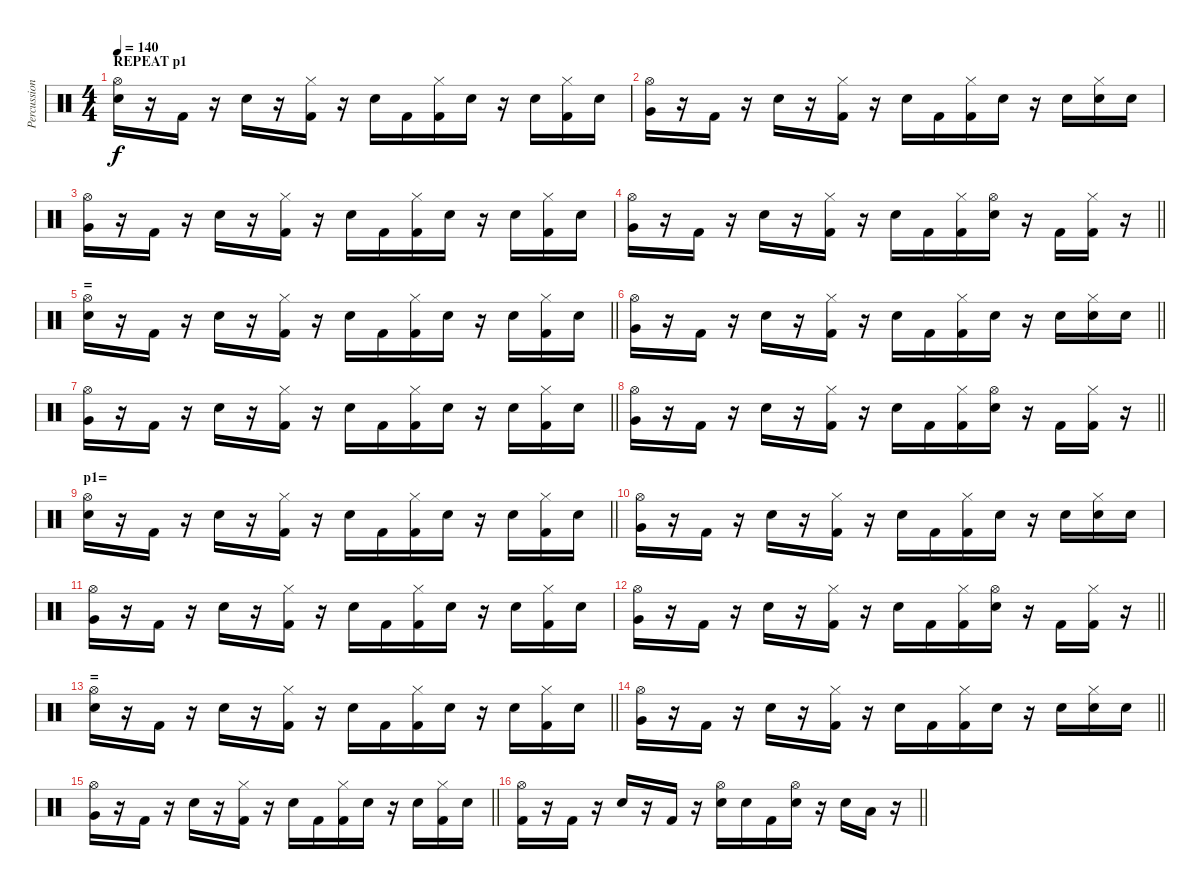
\track ("Percussion" "Percussion") {instrument percussion}
\staff {score}
\articulation defaults
\ts (4 4)
\section ("" "REPEAT p1")
\tempo 140
\clef neutral
\ks c
("Electric Snare (hit)" "Hi-Hat (open)").16{dy f} r.16 "Kick (hit) 2".16 r.16 "Electric Snare (hit)".16 r.16 ("Kick (hit) 2" "Hi-Hat (closed)").16 r.16 "Electric Snare (hit)".16 "Kick (hit) 2".16 ("Kick (hit) 2" "Hi-Hat (closed)").16 "Electric Snare (hit)".16 r.16 "Electric Snare (hit)".16 ("Kick (hit) 2" "Hi-Hat (closed)").16 "Electric Snare (hit)".16 |
("Very Low Tom (hit)" "Hi-Hat (open)").16 r.16 "Kick (hit) 2".16 r.16 "Electric Snare (hit)".16 r.16 ("Kick (hit) 2" "Hi-Hat (closed)").16 r.16 "Electric Snare (hit)".16 "Kick (hit) 2".16 ("Kick (hit) 2" "Hi-Hat (closed)").16 "Electric Snare (hit)".16 r.16 "Electric Snare (hit)".16 ("Electric Snare (hit)" "Hi-Hat (closed)").16 "Electric Snare (hit)".16 |
("Very Low Tom (hit)" "Hi-Hat (open)").16 r.16 "Kick (hit) 2".16 r.16 "Electric Snare (hit)".16 r.16 ("Kick (hit) 2" "Hi-Hat (closed)").16 r.16 "Electric Snare (hit)".16 "Kick (hit) 2".16 ("Kick (hit) 2" "Hi-Hat (closed)").16 "Electric Snare (hit)".16 r.16 "Electric Snare (hit)".16 ("Kick (hit) 2" "Hi-Hat (closed)").16 "Electric Snare (hit)".16 |
\barLineRight lightlight
("Very Low Tom (hit)" "Hi-Hat (open)").16 r.16 "Kick (hit) 2".16 r.16 "Electric Snare (hit)".16 r.16 ("Kick (hit) 2" "Hi-Hat (closed)").16 r.16 "Electric Snare (hit)".16 "Kick (hit) 2".16 ("Kick (hit) 2" "Hi-Hat (closed)").16 ("Electric Snare (hit)" "Hi-Hat (open)").16 r.16 "Kick (hit) 2".16 ("Kick (hit) 2" "Hi-Hat (closed)").16 r.16 |
\section ("" "=")
\barLineRight lightlight
("Electric Snare (hit)" "Hi-Hat (open)").16 r.16 "Kick (hit) 2".16 r.16 "Electric Snare (hit)".16 r.16 ("Kick (hit) 2" "Hi-Hat (closed)").16 r.16 "Electric Snare (hit)".16 "Kick (hit) 2".16 ("Kick (hit) 2" "Hi-Hat (closed)").16 "Electric Snare (hit)".16 r.16 "Electric Snare (hit)".16 ("Kick (hit) 2" "Hi-Hat (closed)").16 "Electric Snare (hit)".16 |
\barLineRight lightlight
("Very Low Tom (hit)" "Hi-Hat (open)").16 r.16 "Kick (hit) 2".16 r.16 "Electric Snare (hit)".16 r.16 ("Kick (hit) 2" "Hi-Hat (closed)").16 r.16 "Electric Snare (hit)".16 "Kick (hit) 2".16 ("Kick (hit) 2" "Hi-Hat (closed)").16 "Electric Snare (hit)".16 r.16 "Electric Snare (hit)".16 ("Electric Snare (hit)" "Hi-Hat (closed)").16 "Electric Snare (hit)".16 |
\barLineRight lightlight
("Very Low Tom (hit)" "Hi-Hat (open)").16 r.16 "Kick (hit) 2".16 r.16 "Electric Snare (hit)".16 r.16 ("Kick (hit) 2" "Hi-Hat (closed)").16 r.16 "Electric Snare (hit)".16 "Kick (hit) 2".16 ("Kick (hit) 2" "Hi-Hat (closed)").16 "Electric Snare (hit)".16 r.16 "Electric Snare (hit)".16 ("Kick (hit) 2" "Hi-Hat (closed)").16 "Electric Snare (hit)".16 |
\barLineRight lightlight
("Very Low Tom (hit)" "Hi-Hat (open)").16 r.16 "Kick (hit) 2".16 r.16 "Electric Snare (hit)".16 r.16 ("Kick (hit) 2" "Hi-Hat (closed)").16 r.16 "Electric Snare (hit)".16 "Kick (hit) 2".16 ("Kick (hit) 2" "Hi-Hat (closed)").16 ("Electric Snare (hit)" "Hi-Hat (open)").16 r.16 "Kick (hit) 2".16 ("Kick (hit) 2" "Hi-Hat (closed)").16 r.16 |
\section ("" "p1=")
\barLineRight lightlight
("Electric Snare (hit)" "Hi-Hat (open)").16 r.16 "Kick (hit) 2".16 r.16 "Electric Snare (hit)".16 r.16 ("Kick (hit) 2" "Hi-Hat (closed)").16 r.16 "Electric Snare (hit)".16 "Kick (hit) 2".16 ("Kick (hit) 2" "Hi-Hat (closed)").16 "Electric Snare (hit)".16 r.16 "Electric Snare (hit)".16 ("Kick (hit) 2" "Hi-Hat (closed)").16 "Electric Snare (hit)".16 |
("Very Low Tom (hit)" "Hi-Hat (open)").16 r.16 "Kick (hit) 2".16 r.16 "Electric Snare (hit)".16 r.16 ("Kick (hit) 2" "Hi-Hat (closed)").16 r.16 "Electric Snare (hit)".16 "Kick (hit) 2".16 ("Kick (hit) 2" "Hi-Hat (closed)").16 "Electric Snare (hit)".16 r.16 "Electric Snare (hit)".16 ("Electric Snare (hit)" "Hi-Hat (closed)").16 "Electric Snare (hit)".16 |
("Very Low Tom (hit)" "Hi-Hat (open)").16 r.16 "Kick (hit) 2".16 r.16 "Electric Snare (hit)".16 r.16 ("Kick (hit) 2" "Hi-Hat (closed)").16 r.16 "Electric Snare (hit)".16 "Kick (hit) 2".16 ("Kick (hit) 2" "Hi-Hat (closed)").16 "Electric Snare (hit)".16 r.16 "Electric Snare (hit)".16 ("Kick (hit) 2" "Hi-Hat (closed)").16 "Electric Snare (hit)".16 |
\barLineRight lightlight
("Very Low Tom (hit)" "Hi-Hat (open)").16 r.16 "Kick (hit) 2".16 r.16 "Electric Snare (hit)".16 r.16 ("Kick (hit) 2" "Hi-Hat (closed)").16 r.16 "Electric Snare (hit)".16 "Kick (hit) 2".16 ("Kick (hit) 2" "Hi-Hat (closed)").16 ("Electric Snare (hit)" "Hi-Hat (open)").16 r.16 "Kick (hit) 2".16 ("Kick (hit) 2" "Hi-Hat (closed)").16 r.16 |
\section ("" "=")
\barLineRight lightlight
("Electric Snare (hit)" "Hi-Hat (open)").16 r.16 "Kick (hit) 2".16 r.16 "Electric Snare (hit)".16 r.16 ("Kick (hit) 2" "Hi-Hat (closed)").16 r.16 "Electric Snare (hit)".16 "Kick (hit) 2".16 ("Kick (hit) 2" "Hi-Hat (closed)").16 "Electric Snare (hit)".16 r.16 "Electric Snare (hit)".16 ("Kick (hit) 2" "Hi-Hat (closed)").16 "Electric Snare (hit)".16 |
\barLineRight lightlight
("Very Low Tom (hit)" "Hi-Hat (open)").16 r.16 "Kick (hit) 2".16 r.16 "Electric Snare (hit)".16 r.16 ("Kick (hit) 2" "Hi-Hat (closed)").16 r.16 "Electric Snare (hit)".16 "Kick (hit) 2".16 ("Kick (hit) 2" "Hi-Hat (closed)").16 "Electric Snare (hit)".16 r.16 "Electric Snare (hit)".16 ("Electric Snare (hit)" "Hi-Hat (closed)").16 "Electric Snare (hit)".16 |
\barLineRight lightlight
("Very Low Tom (hit)" "Hi-Hat (open)").16 r.16 "Kick (hit) 2".16 r.16 "Electric Snare (hit)".16 r.16 ("Kick (hit) 2" "Hi-Hat (closed)").16 r.16 "Electric Snare (hit)".16 "Kick (hit) 2".16 ("Kick (hit) 2" "Hi-Hat (closed)").16 "Electric Snare (hit)".16 r.16 "Electric Snare (hit)".16 ("Kick (hit) 2" "Hi-Hat (closed)").16 "Electric Snare (hit)".16 |
\barLineRight lightlight
("Kick (hit) 2" "Hi-Hat (open)").16 r.16 "Kick (hit) 2".16 r.16 "Electric Snare (hit)".16 r.16 "Kick (hit) 2".16 r.16 ("Electric Snare (hit)" "Hi-Hat (open)").16 "Electric Snare (hit)".16 "Kick (hit) 2".16 ("Electric Snare (hit)" "Hi-Hat (open)").16 r.16 "Electric Snare (hit)".16 "Low Floor Tom (hit)".16 r.16
